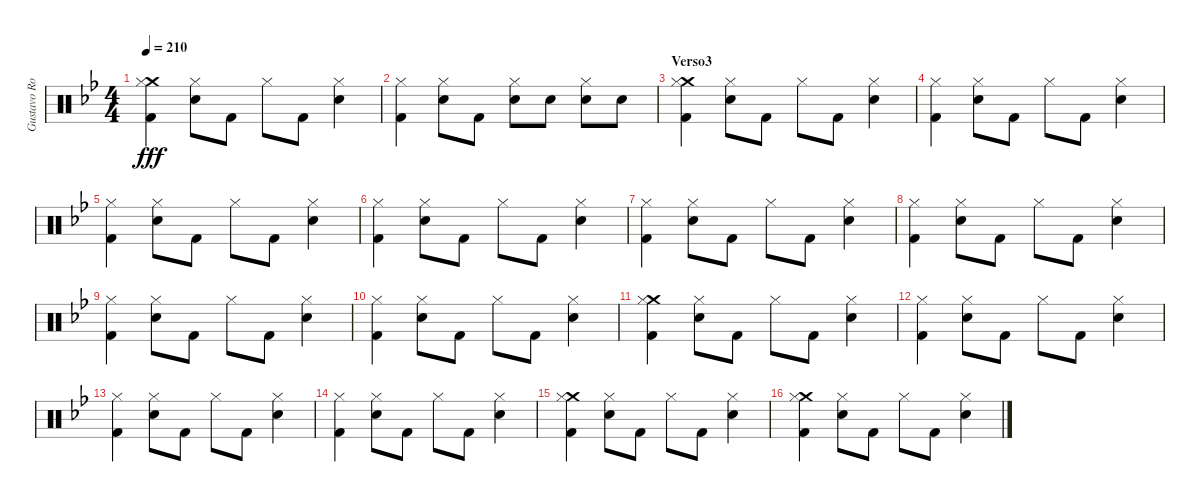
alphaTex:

\track ("Gustavo Rowek" "Gustavo Ro") {instrument percussion}
\staff {score}
\articulation defaults
\ts (4 4)
\tempo 210
\clef neutral
\ks gminor
("Crash medium (hit)" "Hi-Hat (closed)" "Kick (hit) 2").4{dy fff} ("Hi-Hat (closed)" "Snare (hit) 2").8 "Kick (hit) 2".8 "Hi-Hat (closed)".8 "Kick (hit) 2".8 ("Hi-Hat (closed)" "Snare (hit) 2").4 |
("Hi-Hat (closed)" "Kick (hit) 2").4 ("Hi-Hat (closed)" "Snare (hit) 2").8 "Kick (hit) 2".8 ("Hi-Hat (closed)" "Snare (hit) 2").8 "Snare (hit) 2".8 ("Hi-Hat (closed)" "Snare (hit) 2").8 "Snare (hit) 2".8 |
\section ("" "Verso3")
("Crash medium (hit)" "Hi-Hat (closed)" "Kick (hit) 2").4 ("Hi-Hat (closed)" "Snare (hit) 2").8 "Kick (hit) 2".8 "Hi-Hat (closed)".8 "Kick (hit) 2".8 ("Hi-Hat (closed)" "Snare (hit) 2").4 |
("Hi-Hat (closed)" "Kick (hit) 2").4 ("Hi-Hat (closed)" "Snare (hit) 2").8 "Kick (hit) 2".8 "Hi-Hat (closed)".8 "Kick (hit) 2".8 ("Hi-Hat (closed)" "Snare (hit) 2").4 |
("Hi-Hat (closed)" "Kick (hit) 2").4 ("Hi-Hat (closed)" "Snare (hit) 2").8 "Kick (hit) 2".8 "Hi-Hat (closed)".8 "Kick (hit) 2".8 ("Hi-Hat (closed)" "Snare (hit) 2").4 |
("Hi-Hat (closed)" "Kick (hit) 2").4 ("Hi-Hat (closed)" "Snare (hit) 2").8 "Kick (hit) 2".8 "Hi-Hat (closed)".8 "Kick (hit) 2".8 ("Hi-Hat (closed)" "Snare (hit) 2").4 |
("Hi-Hat (closed)" "Kick (hit) 2").4 ("Hi-Hat (closed)" "Snare (hit) 2").8 "Kick (hit) 2".8 "Hi-Hat (closed)".8 "Kick (hit) 2".8 ("Hi-Hat (closed)" "Snare (hit) 2").4 |
("Hi-Hat (closed)" "Kick (hit) 2").4 ("Hi-Hat (closed)" "Snare (hit) 2").8 "Kick (hit) 2".8 "Hi-Hat (closed)".8 "Kick (hit) 2".8 ("Hi-Hat (closed)" "Snare (hit) 2").4 |
("Hi-Hat (closed)" "Kick (hit) 2").4 ("Hi-Hat (closed)" "Snare (hit) 2").8 "Kick (hit) 2".8 "Hi-Hat (closed)".8 "Kick (hit) 2".8 ("Hi-Hat (closed)" "Snare (hit) 2").4 |
("Hi-Hat (closed)" "Kick (hit) 2").4 ("Hi-Hat (closed)" "Snare (hit) 2").8 "Kick (hit) 2".8 "Hi-Hat (closed)".8 "Kick (hit) 2".8 ("Hi-Hat (closed)" "Snare (hit) 2").4 |
("Crash medium (hit)" "Hi-Hat (closed)" "Kick (hit) 2").4 ("Hi-Hat (closed)" "Snare (hit) 2").8 "Kick (hit) 2".8 "Hi-Hat (closed)".8 "Kick (hit) 2".8 ("Hi-Hat (closed)" "Snare (hit) 2").4 |
("Hi-Hat (closed)" "Kick (hit) 2").4 ("Hi-Hat (closed)" "Snare (hit) 2").8 "Kick (hit) 2".8 "Hi-Hat (closed)".8 "Kick (hit) 2".8 ("Hi-Hat (closed)" "Snare (hit) 2").4 |
("Hi-Hat (closed)" "Kick (hit) 2").4 ("Hi-Hat (closed)" "Snare (hit) 2").8 "Kick (hit) 2".8 "Hi-Hat (closed)".8 "Kick (hit) 2".8 ("Hi-Hat (closed)" "Snare (hit) 2").4 |
("Hi-Hat (closed)" "Kick (hit) 2").4 ("Hi-Hat (closed)" "Snare (hit) 2").8 "Kick (hit) 2".8 "Hi-Hat (closed)".8 "Kick (hit) 2".8 ("Hi-Hat (closed)" "Snare (hit) 2").4 |
("Crash medium (hit)" "Hi-Hat (closed)" "Kick (hit) 2").4 ("Hi-Hat (closed)" "Snare (hit) 2").8 "Kick (hit) 2".8 "Hi-Hat (closed)".8 "Kick (hit) 2".8 ("Hi-Hat (closed)" "Snare (hit) 2").4 |
("Crash medium (hit)" "Hi-Hat (closed)" "Kick (hit) 2").4 ("Hi-Hat (closed)" "Snare (hit) 2").8 "Kick (hit) 2".8 "Hi-Hat (closed)".8 "Kick (hit) 2".8 ("Hi-Hat (closed)" "Snare (hit) 2").4
